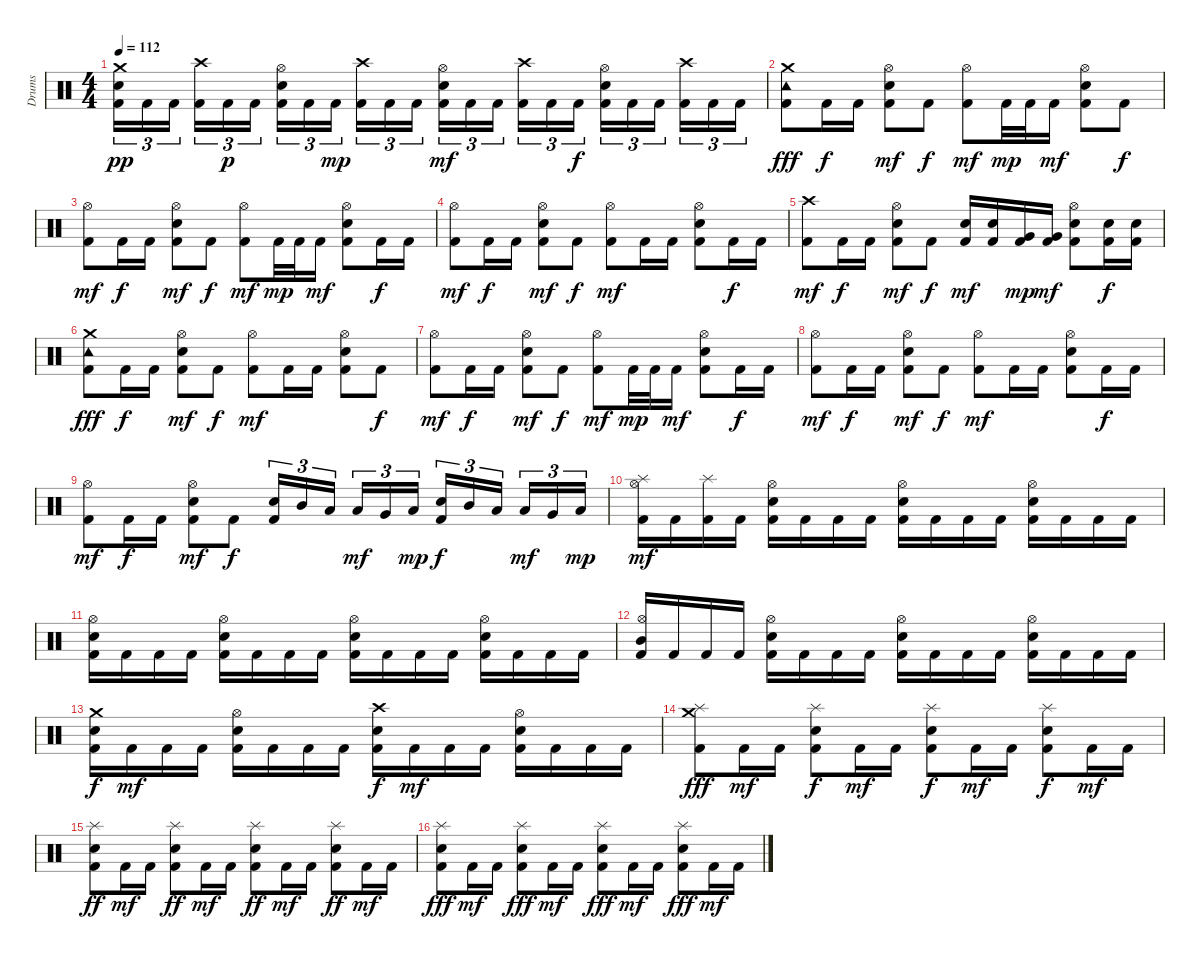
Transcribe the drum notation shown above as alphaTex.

\track ("Drums" "Drums") {instrument percussion}
\staff {score}
\articulation defaults
\ts (4 4)
\tempo 112
\clef neutral
\ks c
("Crash medium (hit)" "Electric Snare (hit)" "Kick (hit) 2").16{tu (3 2) dy pp} "Kick (hit) 2".16{tu (3 2)} "Kick (hit) 2".16{tu (3 2) beam splitsecondary} ("Crash high (hit)" "Kick (hit) 2").16{tu (3 2)} "Kick (hit) 2".16{tu (3 2) dy p} "Kick (hit) 2".16{tu (3 2)} ("Hi-Hat (open)" "Electric Snare (hit)" "Kick (hit) 2").16{tu (3 2)} "Kick (hit) 2".16{tu (3 2)} "Kick (hit) 2".16{tu (3 2) dy mp beam splitsecondary} ("Crash high (hit)" "Kick (hit) 2").16{tu (3 2)} "Kick (hit) 2".16{tu (3 2)} "Kick (hit) 2".16{tu (3 2)} ("Hi-Hat (open)" "Electric Snare (hit)" "Kick (hit) 2").16{tu (3 2) dy mf} "Kick (hit) 2".16{tu (3 2)} "Kick (hit) 2".16{tu (3 2) beam splitsecondary} ("Crash high (hit)" "Kick (hit) 2").16{tu (3 2)} "Kick (hit) 2".16{tu (3 2)} "Kick (hit) 2".16{tu (3 2) dy f} ("Hi-Hat (open)" "Electric Snare (hit)" "Kick (hit) 2").16{tu (3 2)} "Kick (hit) 2".16{tu (3 2)} "Kick (hit) 2".16{tu (3 2) beam splitsecondary} ("Crash high (hit)" "Kick (hit) 2").16{tu (3 2)} "Kick (hit) 2".16{tu (3 2)} "Kick (hit) 2".16{tu (3 2)} |
("Crash medium (hit)" "Tambourine (hit)" "Kick (hit) 2").8{dy fff} "Kick (hit) 2".16{dy f} "Kick (hit) 2".16 ("Hi-Hat (open)" "Electric Snare (hit)" "Kick (hit) 2").8{dy mf} "Kick (hit) 2".8{dy f} ("Hi-Hat (open)" "Kick (hit) 2").8{dy mf} "Kick (hit) 2".32{dy mp} "Kick (hit) 2".32 "Kick (hit) 2".16{dy mf} ("Hi-Hat (open)" "Electric Snare (hit)" "Kick (hit) 2").8 "Kick (hit) 2".8{dy f} |
("Hi-Hat (open)" "Kick (hit) 2").8{dy mf} "Kick (hit) 2".16{dy f} "Kick (hit) 2".16 ("Hi-Hat (open)" "Electric Snare (hit)" "Kick (hit) 2").8{dy mf} "Kick (hit) 2".8{dy f} ("Hi-Hat (open)" "Kick (hit) 2").8{dy mf} "Kick (hit) 2".32{dy mp} "Kick (hit) 2".32 "Kick (hit) 2".16{dy mf} ("Hi-Hat (open)" "Electric Snare (hit)" "Kick (hit) 2").8 "Kick (hit) 2".16{dy f} "Kick (hit) 2".16 |
("Hi-Hat (open)" "Kick (hit) 2").8{dy mf} "Kick (hit) 2".16{dy f} "Kick (hit) 2".16 ("Hi-Hat (open)" "Electric Snare (hit)" "Kick (hit) 2").8{dy mf} "Kick (hit) 2".8{dy f} ("Hi-Hat (open)" "Kick (hit) 2").8{dy mf} "Kick (hit) 2".16 "Kick (hit) 2".16 ("Hi-Hat (open)" "Electric Snare (hit)" "Kick (hit) 2").8 "Kick (hit) 2".16{dy f} "Kick (hit) 2".16 |
("Crash high (hit)" "Kick (hit) 2").8{dy mf} "Kick (hit) 2".16{dy f} "Kick (hit) 2".16 ("Hi-Hat (open)" "Electric Snare (hit)" "Kick (hit) 2").8{dy mf} "Kick (hit) 2".8{dy f} ("Electric Snare (hit)" "Kick (hit) 2").16{dy mf} ("Electric Snare (hit)" "Kick (hit) 2").16 ("Very Low Tom (hit)" "Kick (hit) 2").16{dy mp} ("Very Low Tom (hit)" "Kick (hit) 2").16{dy mf} ("Hi-Hat (open)" "Electric Snare (hit)" "Kick (hit) 2").8 ("Electric Snare (hit)" "Kick (hit) 2").16{dy f} ("Electric Snare (hit)" "Kick (hit) 2").16 |
("Crash medium (hit)" "Tambourine (hit)" "Kick (hit) 2").8{dy fff} "Kick (hit) 2".16{dy f} "Kick (hit) 2".16 ("Hi-Hat (open)" "Electric Snare (hit)" "Kick (hit) 2").8{dy mf} "Kick (hit) 2".8{dy f} ("Hi-Hat (open)" "Kick (hit) 2").8{dy mf} "Kick (hit) 2".16 "Kick (hit) 2".16 ("Hi-Hat (open)" "Electric Snare (hit)" "Kick (hit) 2").8 "Kick (hit) 2".8{dy f} |
("Hi-Hat (open)" "Kick (hit) 2").8{dy mf} "Kick (hit) 2".16{dy f} "Kick (hit) 2".16 ("Hi-Hat (open)" "Electric Snare (hit)" "Kick (hit) 2").8{dy mf} "Kick (hit) 2".8{dy f} ("Hi-Hat (open)" "Kick (hit) 2").8{dy mf} "Kick (hit) 2".32{dy mp} "Kick (hit) 2".32 "Kick (hit) 2".16{dy mf} ("Hi-Hat (open)" "Electric Snare (hit)" "Kick (hit) 2").8 "Kick (hit) 2".16{dy f} "Kick (hit) 2".16 |
("Hi-Hat (open)" "Kick (hit) 2").8{dy mf} "Kick (hit) 2".16{dy f} "Kick (hit) 2".16 ("Hi-Hat (open)" "Electric Snare (hit)" "Kick (hit) 2").8{dy mf} "Kick (hit) 2".8{dy f} ("Hi-Hat (open)" "Kick (hit) 2").8{dy mf} "Kick (hit) 2".16 "Kick (hit) 2".16 ("Hi-Hat (open)" "Electric Snare (hit)" "Kick (hit) 2").8 "Kick (hit) 2".16{dy f} "Kick (hit) 2".16 |
("Hi-Hat (open)" "Kick (hit) 2").8{dy mf} "Kick (hit) 2".16{dy f} "Kick (hit) 2".16 ("Hi-Hat (open)" "Electric Snare (hit)" "Kick (hit) 2").8{dy mf} "Kick (hit) 2".8{dy f} ("Electric Snare (hit)" "Kick (hit) 2").16{tu (3 2)} "Mid Tom (hit)".16{tu (3 2)} "Low Tom (hit)".16{tu (3 2) beam splitsecondary} "Low Tom (hit)".16{tu (3 2) dy mf} "Very Low Tom (hit)".16{tu (3 2)} "Low Floor Tom (hit)".16{tu (3 2) dy mp} ("Electric Snare (hit)" "Kick (hit) 2").16{tu (3 2) dy f} "Mid Tom (hit)".16{tu (3 2)} "Low Tom (hit)".16{tu (3 2) beam splitsecondary} "Low Tom (hit)".16{tu (3 2) dy mf} "Very Low Tom (hit)".16{tu (3 2)} "Low Floor Tom (hit)".16{tu (3 2) dy mp} |
("Splash (hit)" "Hi-Hat (open)" "Kick (hit) 2").16{dy mf} "Kick (hit) 2".16 ("Splash (hit)" "Kick (hit) 2").16 "Kick (hit) 2".16 ("Hi-Hat (open)" "Electric Snare (hit)" "Kick (hit) 2").16 "Kick (hit) 2".16 "Kick (hit) 2".16 "Kick (hit) 2".16 ("Hi-Hat (open)" "Electric Snare (hit)" "Kick (hit) 2").16 "Kick (hit) 2".16 "Kick (hit) 2".16 "Kick (hit) 2".16 ("Hi-Hat (open)" "Electric Snare (hit)" "Kick (hit) 2").16 "Kick (hit) 2".16 "Kick (hit) 2".16 "Kick (hit) 2".16 |
("Hi-Hat (open)" "Electric Snare (hit)" "Kick (hit) 2").16 "Kick (hit) 2".16 "Kick (hit) 2".16 "Kick (hit) 2".16 ("Hi-Hat (open)" "Electric Snare (hit)" "Kick (hit) 2").16 "Kick (hit) 2".16 "Kick (hit) 2".16 "Kick (hit) 2".16 ("Hi-Hat (open)" "Electric Snare (hit)" "Kick (hit) 2").16 "Kick (hit) 2".16 "Kick (hit) 2".16 "Kick (hit) 2".16 ("Hi-Hat (open)" "Electric Snare (hit)" "Kick (hit) 2").16 "Kick (hit) 2".16 "Kick (hit) 2".16 "Kick (hit) 2".16 |
("Hi-Hat (open)" "Mid Tom (hit)" "Kick (hit) 2").16 "Kick (hit) 2".16 "Kick (hit) 2".16 "Kick (hit) 2".16 ("Hi-Hat (open)" "Electric Snare (hit)" "Kick (hit) 2").16 "Kick (hit) 2".16 "Kick (hit) 2".16 "Kick (hit) 2".16 ("Hi-Hat (open)" "Electric Snare (hit)" "Kick (hit) 2").16 "Kick (hit) 2".16 "Kick (hit) 2".16 "Kick (hit) 2".16 ("Hi-Hat (open)" "Electric Snare (hit)" "Kick (hit) 2").16 "Kick (hit) 2".16 "Kick (hit) 2".16 "Kick (hit) 2".16 |
("Crash medium (hit)" "Electric Snare (hit)" "Kick (hit) 2").16{dy f} "Kick (hit) 2".16{dy mf} "Kick (hit) 2".16 "Kick (hit) 2".16 ("Hi-Hat (open)" "Electric Snare (hit)" "Kick (hit) 2").16 "Kick (hit) 2".16 "Kick (hit) 2".16 "Kick (hit) 2".16 ("Crash high (hit)" "Electric Snare (hit)" "Kick (hit) 2").16{dy f} "Kick (hit) 2".16{dy mf} "Kick (hit) 2".16 "Kick (hit) 2".16 ("Hi-Hat (open)" "Electric Snare (hit)" "Kick (hit) 2").16 "Kick (hit) 2".16 "Kick (hit) 2".16 "Kick (hit) 2".16 |
("Crash medium (hit)" "Splash (hit)" "Kick (hit) 2").8{dy fff} "Kick (hit) 2".16{dy mf} "Kick (hit) 2".16 ("Splash (hit)" "Electric Snare (hit)" "Kick (hit) 2").8{dy f} "Kick (hit) 2".16{dy mf} "Kick (hit) 2".16 ("Splash (hit)" "Electric Snare (hit)" "Kick (hit) 2").8{dy f} "Kick (hit) 2".16{dy mf} "Kick (hit) 2".16 ("Splash (hit)" "Electric Snare (hit)" "Kick (hit) 2").8{dy f} "Kick (hit) 2".16{dy mf} "Kick (hit) 2".16 |
("Splash (hit)" "Electric Snare (hit)" "Kick (hit) 2").8{dy ff} "Kick (hit) 2".16{dy mf} "Kick (hit) 2".16 ("Splash (hit)" "Electric Snare (hit)" "Kick (hit) 2").8{dy ff} "Kick (hit) 2".16{dy mf} "Kick (hit) 2".16 ("Splash (hit)" "Electric Snare (hit)" "Kick (hit) 2").8{dy ff} "Kick (hit) 2".16{dy mf} "Kick (hit) 2".16 ("Splash (hit)" "Electric Snare (hit)" "Kick (hit) 2").8{dy ff} "Kick (hit) 2".16{dy mf} "Kick (hit) 2".16 |
("Splash (hit)" "Electric Snare (hit)" "Kick (hit) 2").8{dy fff} "Kick (hit) 2".16{dy mf} "Kick (hit) 2".16 ("Splash (hit)" "Electric Snare (hit)" "Kick (hit) 2").8{dy fff} "Kick (hit) 2".16{dy mf} "Kick (hit) 2".16 ("Splash (hit)" "Electric Snare (hit)" "Kick (hit) 2").8{dy fff} "Kick (hit) 2".16{dy mf} "Kick (hit) 2".16 ("Splash (hit)" "Electric Snare (hit)" "Kick (hit) 2").8{dy fff} "Kick (hit) 2".16{dy mf} "Kick (hit) 2".16
